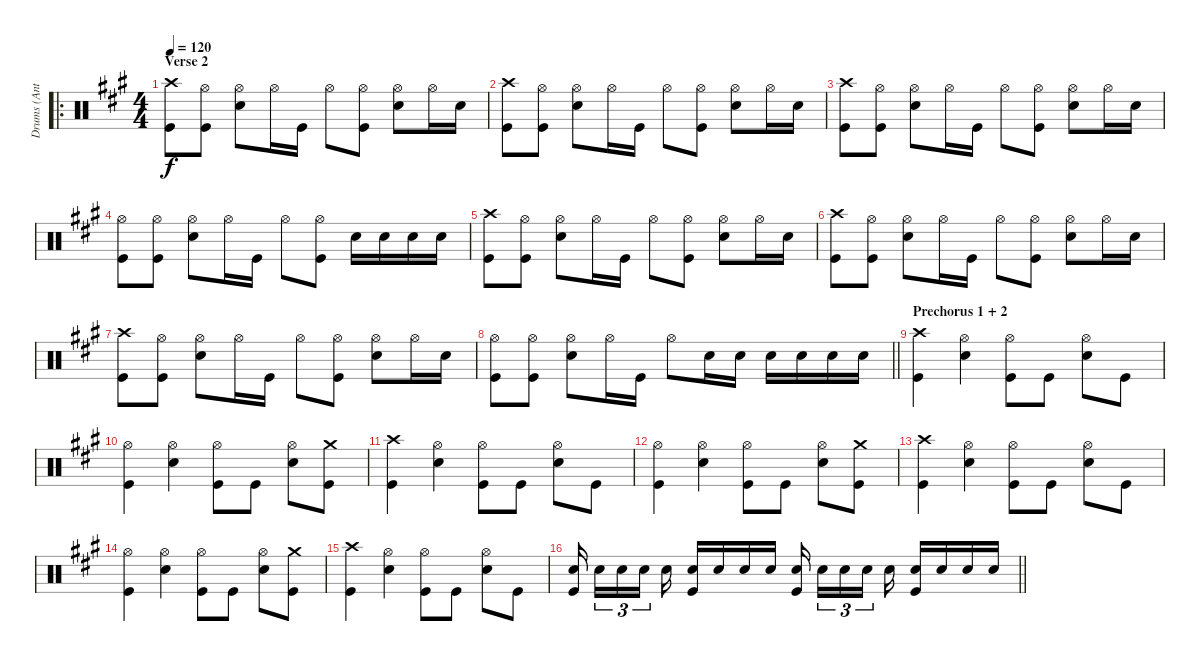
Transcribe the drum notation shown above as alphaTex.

\track ("Drums (Ant)" "Drums (Ant") {instrument percussion}
\staff {score}
\articulation defaults
\ro
\ts (4 4)
\section ("" "Verse 2")
\tempo 120
\clef neutral
\ks a
("Crash high (hit)" "Kick (hit)").8{dy f} ("Hi-Hat (open)" "Kick (hit)").8 ("Hi-Hat (open)" "Snare (hit) 2").8 "Hi-Hat (open)".16 "Kick (hit)".16 "Hi-Hat (open)".8 ("Hi-Hat (open)" "Kick (hit)").8 ("Hi-Hat (open)" "Snare (hit) 2").8 "Hi-Hat (open)".16 "Snare (hit) 2".16 |
("Crash high (hit)" "Kick (hit)").8 ("Hi-Hat (open)" "Kick (hit)").8 ("Hi-Hat (open)" "Snare (hit) 2").8 "Hi-Hat (open)".16 "Kick (hit)".16 "Hi-Hat (open)".8 ("Hi-Hat (open)" "Kick (hit)").8 ("Hi-Hat (open)" "Snare (hit) 2").8 "Hi-Hat (open)".16 "Snare (hit) 2".16 |
("Crash high (hit)" "Kick (hit)").8 ("Hi-Hat (open)" "Kick (hit)").8 ("Hi-Hat (open)" "Snare (hit) 2").8 "Hi-Hat (open)".16 "Kick (hit)".16 "Hi-Hat (open)".8 ("Hi-Hat (open)" "Kick (hit)").8 ("Hi-Hat (open)" "Snare (hit) 2").8 "Hi-Hat (open)".16 "Snare (hit) 2".16 |
("Hi-Hat (open)" "Kick (hit)").8 ("Hi-Hat (open)" "Kick (hit)").8 ("Hi-Hat (open)" "Snare (hit) 2").8 "Hi-Hat (open)".16 "Kick (hit)".16 "Hi-Hat (open)".8 ("Hi-Hat (open)" "Kick (hit)").8 "Snare (hit) 2".16 "Snare (hit) 2".16 "Snare (hit) 2".16 "Snare (hit) 2".16 |
("Crash high (hit)" "Kick (hit)").8 ("Hi-Hat (open)" "Kick (hit)").8 ("Hi-Hat (open)" "Snare (hit) 2").8 "Hi-Hat (open)".16 "Kick (hit)".16 "Hi-Hat (open)".8 ("Hi-Hat (open)" "Kick (hit)").8 ("Hi-Hat (open)" "Snare (hit) 2").8 "Hi-Hat (open)".16 "Snare (hit) 2".16 |
("Crash high (hit)" "Kick (hit)").8 ("Hi-Hat (open)" "Kick (hit)").8 ("Hi-Hat (open)" "Snare (hit) 2").8 "Hi-Hat (open)".16 "Kick (hit)".16 "Hi-Hat (open)".8 ("Hi-Hat (open)" "Kick (hit)").8 ("Hi-Hat (open)" "Snare (hit) 2").8 "Hi-Hat (open)".16 "Snare (hit) 2".16 |
("Crash high (hit)" "Kick (hit)").8 ("Hi-Hat (open)" "Kick (hit)").8 ("Hi-Hat (open)" "Snare (hit) 2").8 "Hi-Hat (open)".16 "Kick (hit)".16 "Hi-Hat (open)".8 ("Hi-Hat (open)" "Kick (hit)").8 ("Hi-Hat (open)" "Snare (hit) 2").8 "Hi-Hat (open)".16 "Snare (hit) 2".16 |
\barLineRight lightlight
("Hi-Hat (open)" "Kick (hit)").8 ("Hi-Hat (open)" "Kick (hit)").8 ("Hi-Hat (open)" "Snare (hit) 2").8 "Hi-Hat (open)".16 "Kick (hit)".16 "Hi-Hat (open)".8 "Snare (hit) 2".16 "Snare (hit) 2".16 "Snare (hit) 2".16 "Snare (hit) 2".16 "Snare (hit) 2".16 "Snare (hit) 2".16 |
\section ("" "Prechorus 1 + 2")
("Crash high (hit)" "Kick (hit)").4 ("Hi-Hat (open)" "Snare (hit) 2").4 ("Hi-Hat (open)" "Kick (hit)").8 "Kick (hit)".8 ("Hi-Hat (open)" "Snare (hit) 2").8 "Kick (hit)".8 |
("Hi-Hat (open)" "Kick (hit)").4 ("Hi-Hat (open)" "Snare (hit) 2").4 ("Hi-Hat (open)" "Kick (hit)").8 "Kick (hit)".8 ("Hi-Hat (open)" "Snare (hit) 2").8 ("Crash medium (hit)" "Kick (hit)").8 |
("Crash high (hit)" "Kick (hit)").4 ("Hi-Hat (open)" "Snare (hit) 2").4 ("Hi-Hat (open)" "Kick (hit)").8 "Kick (hit)".8 ("Hi-Hat (open)" "Snare (hit) 2").8 "Kick (hit)".8 |
("Hi-Hat (open)" "Kick (hit)").4 ("Hi-Hat (open)" "Snare (hit) 2").4 ("Hi-Hat (open)" "Kick (hit)").8 "Kick (hit)".8 ("Hi-Hat (open)" "Snare (hit) 2").8 ("Crash medium (hit)" "Kick (hit)").8 |
("Crash high (hit)" "Kick (hit)").4 ("Hi-Hat (open)" "Snare (hit) 2").4 ("Hi-Hat (open)" "Kick (hit)").8 "Kick (hit)".8 ("Hi-Hat (open)" "Snare (hit) 2").8 "Kick (hit)".8 |
("Hi-Hat (open)" "Kick (hit)").4 ("Hi-Hat (open)" "Snare (hit) 2").4 ("Hi-Hat (open)" "Kick (hit)").8 "Kick (hit)".8 ("Hi-Hat (open)" "Snare (hit) 2").8 ("Crash medium (hit)" "Kick (hit)").8 |
("Crash high (hit)" "Kick (hit)").4 ("Hi-Hat (open)" "Snare (hit) 2").4 ("Hi-Hat (open)" "Kick (hit)").8 "Kick (hit)".8 ("Hi-Hat (open)" "Snare (hit) 2").8 "Kick (hit)".8 |
\barLineRight lightlight
("Snare (hit) 2" "Kick (hit)").16{beam splitsecondary} "Snare (hit) 2".16{tu (3 2)} "Snare (hit) 2".16{tu (3 2)} "Snare (hit) 2".16{tu (3 2) beam splitsecondary} "Snare (hit) 2".16 ("Snare (hit) 2" "Kick (hit)").16 "Snare (hit) 2".16 "Snare (hit) 2".16 "Snare (hit) 2".16 ("Snare (hit) 2" "Kick (hit)").16{beam splitsecondary} "Snare (hit) 2".16{tu (3 2)} "Snare (hit) 2".16{tu (3 2)} "Snare (hit) 2".16{tu (3 2) beam splitsecondary} "Snare (hit) 2".16 ("Snare (hit) 2" "Kick (hit)").16 "Snare (hit) 2".16 "Snare (hit) 2".16 "Snare (hit) 2".16
